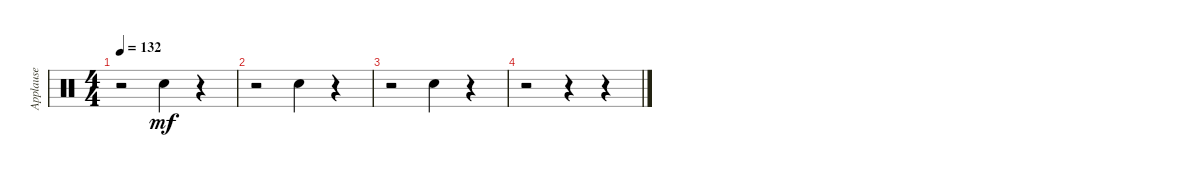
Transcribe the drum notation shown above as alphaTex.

\track ("Applause" "Applause") {instrument percussion}
\staff {score}
\articulation defaults
\ts (4 4)
\tempo 132
\clef neutral
\ks c
r.2{dy mf} "Hand Clap (hit)".4 r.4 |
r.2 "Hand Clap (hit)".4 r.4 |
r.2 "Hand Clap (hit)".4 r.4 |
r.2 r.4 r.4
